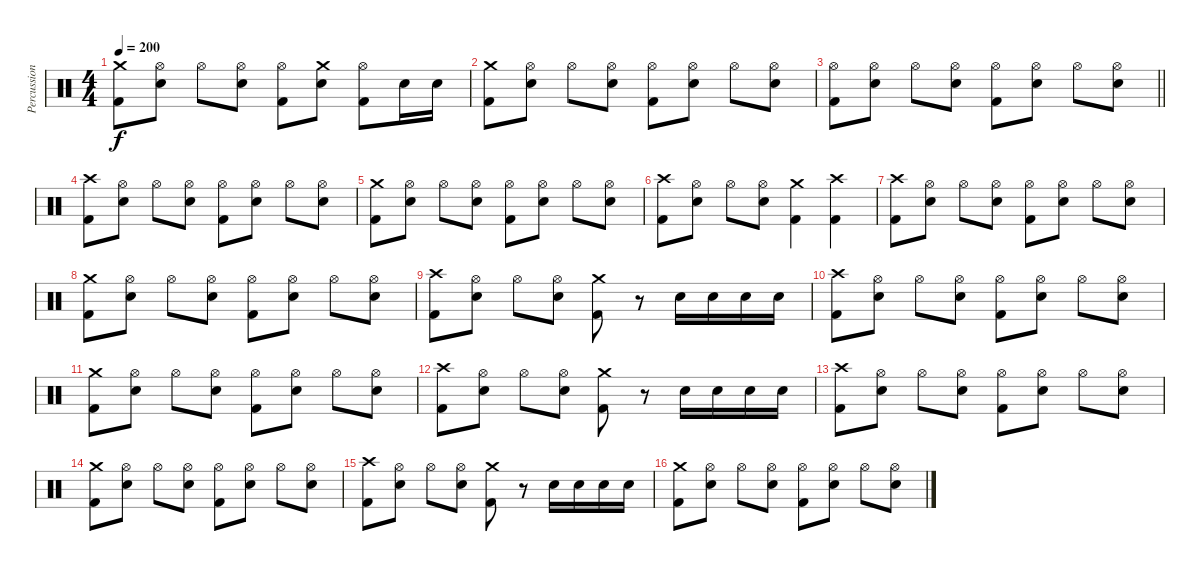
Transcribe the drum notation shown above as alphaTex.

\track ("Percussion" "Percussion") {instrument percussion}
\staff {score}
\articulation defaults
\ts (4 4)
\tempo 200
\clef neutral
\ks c
("Crash medium (hit)" "Kick (hit) 2").8{dy f} ("Hi-Hat (open)" "Electric Snare (hit)").8 "Hi-Hat (open)".8 ("Hi-Hat (open)" "Electric Snare (hit)").8 ("Hi-Hat (open)" "Kick (hit) 2").8 ("Crash medium (hit)" "Electric Snare (hit)").8 ("Hi-Hat (open)" "Kick (hit) 2").8 "Electric Snare (hit)".16 "Electric Snare (hit)".16 |
("Crash medium (hit)" "Kick (hit) 2").8 ("Hi-Hat (open)" "Electric Snare (hit)").8 "Hi-Hat (open)".8 ("Hi-Hat (open)" "Electric Snare (hit)").8 ("Hi-Hat (open)" "Kick (hit) 2").8 ("Hi-Hat (open)" "Electric Snare (hit)").8 "Hi-Hat (open)".8 ("Hi-Hat (open)" "Electric Snare (hit)").8 |
\barLineRight lightlight
("Hi-Hat (open)" "Kick (hit) 2").8 ("Hi-Hat (open)" "Electric Snare (hit)").8 "Hi-Hat (open)".8 ("Hi-Hat (open)" "Electric Snare (hit)").8 ("Hi-Hat (open)" "Kick (hit) 2").8 ("Hi-Hat (open)" "Electric Snare (hit)").8 "Hi-Hat (open)".8 ("Hi-Hat (open)" "Electric Snare (hit)").8 |
("Crash high (hit)" "Kick (hit) 2").8 ("Hi-Hat (open)" "Electric Snare (hit)").8 "Hi-Hat (open)".8 ("Hi-Hat (open)" "Electric Snare (hit)").8 ("Hi-Hat (open)" "Kick (hit) 2").8 ("Hi-Hat (open)" "Electric Snare (hit)").8 "Hi-Hat (open)".8 ("Hi-Hat (open)" "Electric Snare (hit)").8 |
("Crash medium (hit)" "Kick (hit) 2").8 ("Hi-Hat (open)" "Electric Snare (hit)").8 "Hi-Hat (open)".8 ("Hi-Hat (open)" "Electric Snare (hit)").8 ("Hi-Hat (open)" "Kick (hit) 2").8 ("Hi-Hat (open)" "Electric Snare (hit)").8 "Hi-Hat (open)".8 ("Hi-Hat (open)" "Electric Snare (hit)").8 |
("Crash high (hit)" "Kick (hit) 2").8 ("Hi-Hat (open)" "Electric Snare (hit)").8 "Hi-Hat (open)".8 ("Hi-Hat (open)" "Electric Snare (hit)").8 ("Crash medium (hit)" "Kick (hit) 2").4 ("Crash high (hit)" "Kick (hit) 2").4 |
("Crash high (hit)" "Kick (hit) 2").8 ("Hi-Hat (open)" "Electric Snare (hit)").8 "Hi-Hat (open)".8 ("Hi-Hat (open)" "Electric Snare (hit)").8 ("Hi-Hat (open)" "Kick (hit) 2").8 ("Hi-Hat (open)" "Electric Snare (hit)").8 "Hi-Hat (open)".8 ("Hi-Hat (open)" "Electric Snare (hit)").8 |
("Crash medium (hit)" "Kick (hit) 2").8 ("Hi-Hat (open)" "Electric Snare (hit)").8 "Hi-Hat (open)".8 ("Hi-Hat (open)" "Electric Snare (hit)").8 ("Hi-Hat (open)" "Kick (hit) 2").8 ("Hi-Hat (open)" "Electric Snare (hit)").8 "Hi-Hat (open)".8 ("Hi-Hat (open)" "Electric Snare (hit)").8 |
("Crash high (hit)" "Kick (hit) 2").8 ("Hi-Hat (open)" "Electric Snare (hit)").8 "Hi-Hat (open)".8 ("Hi-Hat (open)" "Electric Snare (hit)").8 ("Crash medium (hit)" "Kick (hit) 2").8 r.8 "Electric Snare (hit)".16 "Electric Snare (hit)".16 "Electric Snare (hit)".16 "Electric Snare (hit)".16 |
("Crash high (hit)" "Kick (hit) 2").8 ("Hi-Hat (open)" "Electric Snare (hit)").8 "Hi-Hat (open)".8 ("Hi-Hat (open)" "Electric Snare (hit)").8 ("Hi-Hat (open)" "Kick (hit) 2").8 ("Hi-Hat (open)" "Electric Snare (hit)").8 "Hi-Hat (open)".8 ("Hi-Hat (open)" "Electric Snare (hit)").8 |
("Crash medium (hit)" "Kick (hit) 2").8 ("Hi-Hat (open)" "Electric Snare (hit)").8 "Hi-Hat (open)".8 ("Hi-Hat (open)" "Electric Snare (hit)").8 ("Hi-Hat (open)" "Kick (hit) 2").8 ("Hi-Hat (open)" "Electric Snare (hit)").8 "Hi-Hat (open)".8 ("Hi-Hat (open)" "Electric Snare (hit)").8 |
("Crash high (hit)" "Kick (hit) 2").8 ("Hi-Hat (open)" "Electric Snare (hit)").8 "Hi-Hat (open)".8 ("Hi-Hat (open)" "Electric Snare (hit)").8 ("Crash medium (hit)" "Kick (hit) 2").8 r.8 "Electric Snare (hit)".16 "Electric Snare (hit)".16 "Electric Snare (hit)".16 "Electric Snare (hit)".16 |
("Crash high (hit)" "Kick (hit) 2").8 ("Hi-Hat (open)" "Electric Snare (hit)").8 "Hi-Hat (open)".8 ("Hi-Hat (open)" "Electric Snare (hit)").8 ("Hi-Hat (open)" "Kick (hit) 2").8 ("Hi-Hat (open)" "Electric Snare (hit)").8 "Hi-Hat (open)".8 ("Hi-Hat (open)" "Electric Snare (hit)").8 |
("Crash medium (hit)" "Kick (hit) 2").8 ("Hi-Hat (open)" "Electric Snare (hit)").8 "Hi-Hat (open)".8 ("Hi-Hat (open)" "Electric Snare (hit)").8 ("Hi-Hat (open)" "Kick (hit) 2").8 ("Hi-Hat (open)" "Electric Snare (hit)").8 "Hi-Hat (open)".8 ("Hi-Hat (open)" "Electric Snare (hit)").8 |
("Crash high (hit)" "Kick (hit) 2").8 ("Hi-Hat (open)" "Electric Snare (hit)").8 "Hi-Hat (open)".8 ("Hi-Hat (open)" "Electric Snare (hit)").8 ("Crash medium (hit)" "Kick (hit) 2").8 r.8 "Electric Snare (hit)".16 "Electric Snare (hit)".16 "Electric Snare (hit)".16 "Electric Snare (hit)".16 |
("Crash medium (hit)" "Kick (hit) 2").8 ("Hi-Hat (open)" "Electric Snare (hit)").8 "Hi-Hat (open)".8 ("Hi-Hat (open)" "Electric Snare (hit)").8 ("Hi-Hat (open)" "Kick (hit) 2").8 ("Hi-Hat (open)" "Electric Snare (hit)").8 "Hi-Hat (open)".8 ("Hi-Hat (open)" "Electric Snare (hit)").8
